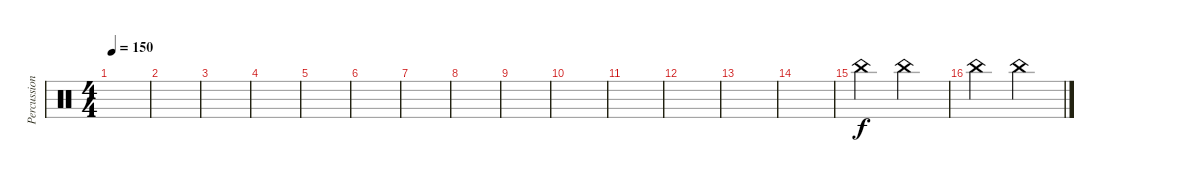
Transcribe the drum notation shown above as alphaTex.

\track ("Percussion" "Percussion") {instrument percussion}
\staff {score}
\articulation defaults
\ts (4 4)
\tempo 150
\clef neutral
\ks c
|
|
|
|
|
|
|
|
|
|
|
|
|
|
"China (hit)".2 "China (hit)".2 |
"China (hit)".2 "China (hit)".2
